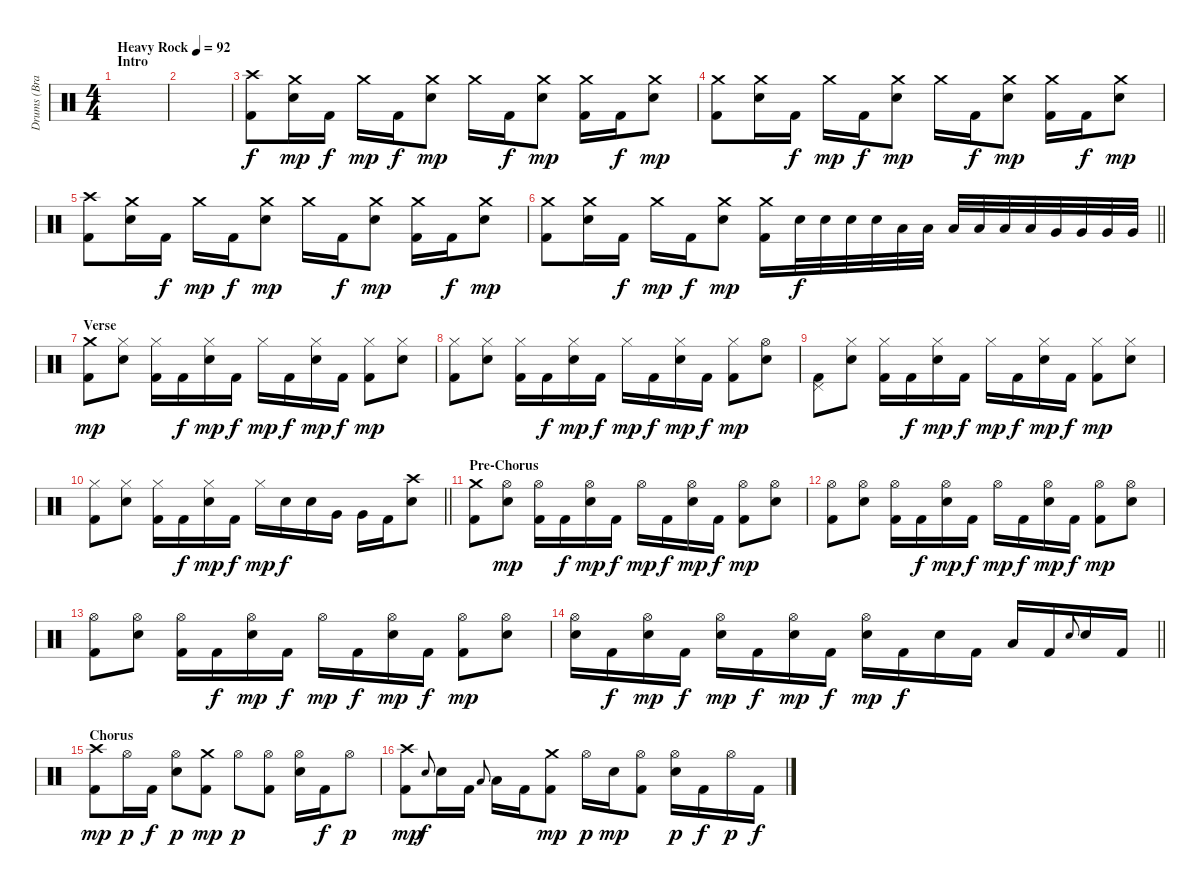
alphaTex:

\track ("Drums (Brandon Saller)" "Drums (Bra") {instrument percussion}
\staff {score}
\articulation defaults
\ts (4 4)
\section ("" "Intro")
\tempo (92 "Heavy Rock")
\clef neutral
\ks c
|
|
("Crash high (hit)" "Kick (hit) 2").8 ("Crash medium (hit)" "Electric Snare (hit)").16{dy mp} "Kick (hit) 2".16{dy f} "Crash medium (hit)".16{dy mp} "Kick (hit) 2".16{dy f} ("Crash medium (hit)" "Electric Snare (hit)").8{dy mp} "Crash medium (hit)".16 "Kick (hit) 2".16{dy f} ("Crash medium (hit)" "Electric Snare (hit)").8{dy mp} ("Crash medium (hit)" "Kick (hit) 2").16 "Kick (hit) 2".16{dy f} ("Crash medium (hit)" "Electric Snare (hit)").8{dy mp} |
("Crash medium (hit)" "Kick (hit) 2").8 ("Crash medium (hit)" "Electric Snare (hit)").16 "Kick (hit) 2".16{dy f} "Crash medium (hit)".16{dy mp} "Kick (hit) 2".16{dy f} ("Crash medium (hit)" "Electric Snare (hit)").8{dy mp} "Crash medium (hit)".16 "Kick (hit) 2".16{dy f} ("Crash medium (hit)" "Electric Snare (hit)").8{dy mp} ("Crash medium (hit)" "Kick (hit) 2").16 "Kick (hit) 2".16{dy f} ("Crash medium (hit)" "Electric Snare (hit)").8{dy mp} |
("Crash high (hit)" "Kick (hit) 2").8 ("Crash medium (hit)" "Electric Snare (hit)").16 "Kick (hit) 2".16{dy f} "Crash medium (hit)".16{dy mp} "Kick (hit) 2".16{dy f} ("Crash medium (hit)" "Electric Snare (hit)").8{dy mp} "Crash medium (hit)".16 "Kick (hit) 2".16{dy f} ("Crash medium (hit)" "Electric Snare (hit)").8{dy mp} ("Crash medium (hit)" "Kick (hit) 2").16 "Kick (hit) 2".16{dy f} ("Crash medium (hit)" "Electric Snare (hit)").8{dy mp} |
\barLineRight lightlight
("Crash medium (hit)" "Kick (hit) 2").8 ("Crash medium (hit)" "Electric Snare (hit)").16 "Kick (hit) 2".16{dy f} "Crash medium (hit)".16{dy mp} "Kick (hit) 2".16{dy f} ("Crash medium (hit)" "Electric Snare (hit)").8{dy mp} ("Crash medium (hit)" "Kick (hit) 2").16 "Electric Snare (hit)".32{dy f} "Electric Snare (hit)".32 "Electric Snare (hit)".32 "Electric Snare (hit)".32 "Low Tom (hit)".32 "Low Tom (hit)".32 "Low Tom (hit)".32 "Low Tom (hit)".32 "Low Tom (hit)".32 "Low Tom (hit)".32 "Very Low Tom (hit)".32 "Very Low Tom (hit)".32 "Very Low Tom (hit)".32 "Very Low Tom (hit)".32 |
\section ("" "Verse")
("Crash medium (hit)" "Kick (hit) 2").8{dy mp} ("Hi-Hat (closed)" "Electric Snare (hit)").8 ("Hi-Hat (closed)" "Kick (hit) 2").16 "Kick (hit) 2".16{dy f} ("Hi-Hat (closed)" "Electric Snare (hit)").16{dy mp} "Kick (hit) 2".16{dy f} "Hi-Hat (closed)".16{dy mp} "Kick (hit) 2".16{dy f} ("Hi-Hat (closed)" "Electric Snare (hit)").16{dy mp} "Kick (hit) 2".16{dy f} ("Hi-Hat (closed)" "Kick (hit) 2").8{dy mp} ("Hi-Hat (closed)" "Electric Snare (hit)").8 |
("Hi-Hat (closed)" "Kick (hit) 2").8 ("Hi-Hat (closed)" "Electric Snare (hit)").8 ("Hi-Hat (closed)" "Kick (hit) 2").16 "Kick (hit) 2".16{dy f} ("Hi-Hat (closed)" "Electric Snare (hit)").16{dy mp} "Kick (hit) 2".16{dy f} "Hi-Hat (closed)".16{dy mp} "Kick (hit) 2".16{dy f} ("Hi-Hat (closed)" "Electric Snare (hit)").16{dy mp} "Kick (hit) 2".16{dy f} ("Hi-Hat (closed)" "Kick (hit) 2").8{dy mp} ("Hi-Hat (open)" "Electric Snare (hit)").8 |
("Pedal Hi-Hat (hit)" "Kick (hit) 2").8 ("Hi-Hat (closed)" "Electric Snare (hit)").8 ("Hi-Hat (closed)" "Kick (hit) 2").16 "Kick (hit) 2".16{dy f} ("Hi-Hat (closed)" "Electric Snare (hit)").16{dy mp} "Kick (hit) 2".16{dy f} "Hi-Hat (closed)".16{dy mp} "Kick (hit) 2".16{dy f} ("Hi-Hat (closed)" "Electric Snare (hit)").16{dy mp} "Kick (hit) 2".16{dy f} ("Hi-Hat (closed)" "Kick (hit) 2").8{dy mp} ("Hi-Hat (closed)" "Electric Snare (hit)").8 |
\barLineRight lightlight
("Hi-Hat (closed)" "Kick (hit) 2").8 ("Hi-Hat (closed)" "Electric Snare (hit)").8 ("Hi-Hat (closed)" "Kick (hit) 2").16 "Kick (hit) 2".16{dy f} ("Hi-Hat (closed)" "Electric Snare (hit)").16{dy mp} "Kick (hit) 2".16{dy f} "Hi-Hat (closed)".16{dy mp} "Electric Snare (hit)".16{dy f} "Electric Snare (hit)".16 "Very Low Tom (hit)".16 "Very Low Tom (hit)".16 "Kick (hit) 2".16 ("Crash high (hit)" "Electric Snare (hit)").8 |
\section ("" "Pre-Chorus")
("Crash medium (hit)" "Kick (hit) 2").8 ("Hi-Hat (open)" "Electric Snare (hit)").8{dy mp} ("Hi-Hat (open)" "Kick (hit) 2").16 "Kick (hit) 2".16{dy f} ("Hi-Hat (open)" "Electric Snare (hit)").16{dy mp} "Kick (hit) 2".16{dy f} "Hi-Hat (open)".16{dy mp} "Kick (hit) 2".16{dy f} ("Hi-Hat (open)" "Electric Snare (hit)").16{dy mp} "Kick (hit) 2".16{dy f} ("Hi-Hat (open)" "Kick (hit) 2").8{dy mp} ("Hi-Hat (open)" "Electric Snare (hit)").8 |
("Hi-Hat (open)" "Kick (hit) 2").8 ("Hi-Hat (open)" "Electric Snare (hit)").8 ("Hi-Hat (open)" "Kick (hit) 2").16 "Kick (hit) 2".16{dy f} ("Hi-Hat (open)" "Electric Snare (hit)").16{dy mp} "Kick (hit) 2".16{dy f} "Hi-Hat (open)".16{dy mp} "Kick (hit) 2".16{dy f} ("Hi-Hat (open)" "Electric Snare (hit)").16{dy mp} "Kick (hit) 2".16{dy f} ("Hi-Hat (open)" "Kick (hit) 2").8{dy mp} ("Hi-Hat (open)" "Electric Snare (hit)").8 |
("Hi-Hat (open)" "Kick (hit) 2").8 ("Hi-Hat (open)" "Electric Snare (hit)").8 ("Hi-Hat (open)" "Kick (hit) 2").16 "Kick (hit) 2".16{dy f} ("Hi-Hat (open)" "Electric Snare (hit)").16{dy mp} "Kick (hit) 2".16{dy f} "Hi-Hat (open)".16{dy mp} "Kick (hit) 2".16{dy f} ("Hi-Hat (open)" "Electric Snare (hit)").16{dy mp} "Kick (hit) 2".16{dy f} ("Hi-Hat (open)" "Kick (hit) 2").8{dy mp} ("Hi-Hat (open)" "Electric Snare (hit)").8 |
\barLineRight lightlight
("Hi-Hat (open)" "Electric Snare (hit)").16 "Kick (hit) 2".16{dy f} ("Hi-Hat (open)" "Electric Snare (hit)").16{dy mp} "Kick (hit) 2".16{dy f} ("Hi-Hat (open)" "Electric Snare (hit)").16{dy mp} "Kick (hit) 2".16{dy f} ("Hi-Hat (open)" "Electric Snare (hit)").16{dy mp} "Kick (hit) 2".16{dy f} ("Hi-Hat (open)" "Electric Snare (hit)").16{dy mp} "Kick (hit) 2".16{dy f} "Snare (hit) 2".16 "Kick (hit) 2".16 "Low Tom (hit)".16 "Kick (hit) 2".16 "Snare (hit) 2"{h}.8{gr onbeat} "Snare (hit) 2".16 "Kick (hit) 2".16 |
\section ("" "Chorus")
("Crash high (hit)" "Kick (hit) 2").8{dy mp} "Hi-Hat (open)".16{dy p} "Kick (hit) 2".16{dy f} ("Hi-Hat (open)" "Electric Snare (hit)").8{dy p} ("Crash medium (hit)" "Kick (hit) 2").8{dy mp} "Hi-Hat (open)".8{dy p} ("Hi-Hat (open)" "Kick (hit) 2").8 ("Hi-Hat (open)" "Electric Snare (hit)").16 "Kick (hit) 2".16{dy f} "Hi-Hat (open)".8{dy p} |
("Crash high (hit)" "Kick (hit) 2").8{dy mp} "Electric Snare (hit)"{h}.8{gr onbeat dy f} "Electric Snare (hit)".16 "Kick (hit) 2".16 "Low Tom (hit)".8{gr onbeat} "Low Tom (hit)".16 "Kick (hit) 2".16 ("Crash medium (hit)" "Kick (hit) 2").8{dy mp} "Hi-Hat (open)".16{dy p} "Electric Snare (hit)".16{dy mp} ("Hi-Hat (open)" "Kick (hit) 2").8 ("Hi-Hat (open)" "Electric Snare (hit)").16{dy p} "Kick (hit) 2".16{dy f} "Hi-Hat (open)".16{dy p} "Kick (hit) 2".16{dy f}
